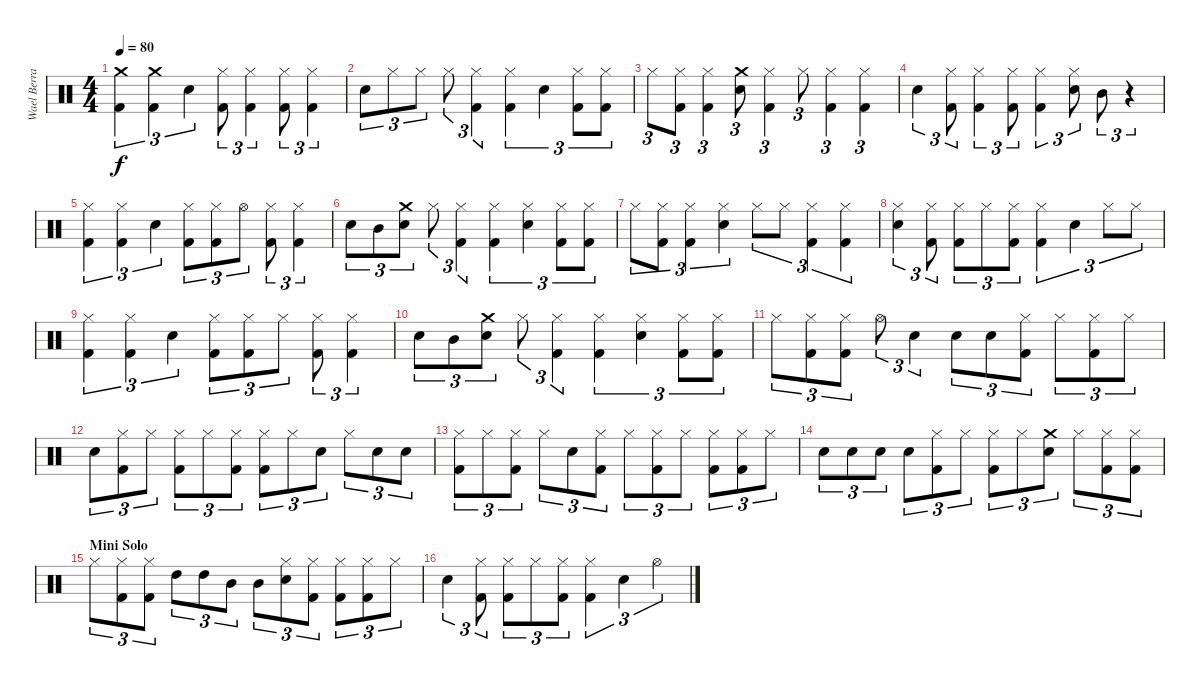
\track ("Wael Berrais" "Wael Berra") {instrument percussion}
\staff {score}
\articulation defaults
\ts (4 4)
\tempo 80
\clef neutral
\ks c
("Kick (hit) 2" "Crash medium (hit)").4{tu (3 2) dy f} ("Crash medium (hit)" "Kick (hit) 2").4{tu (3 2)} "Electric Snare (hit)".4{tu (3 2)} ("Kick (hit) 2" "Hi-Hat (closed)").8{tu (3 2)} ("Hi-Hat (closed)" "Kick (hit) 2").4{tu (3 2)} ("Hi-Hat (closed)" "Kick (hit) 2").8{tu (3 2)} ("Hi-Hat (closed)" "Kick (hit) 2").4{tu (3 2)} |
"Electric Snare (hit)".8{tu (3 2)} "Hi-Hat (closed)".8{tu (3 2)} "Hi-Hat (closed)".8{tu (3 2)} "Hi-Hat (closed)".8{tu (3 2)} ("Hi-Hat (closed)" "Kick (hit) 2").4{tu (3 2)} ("Hi-Hat (closed)" "Kick (hit) 2").4{tu (3 2)} "Electric Snare (hit)".4{tu (3 2)} ("Kick (hit) 2" "Hi-Hat (closed)").8{tu (3 2)} ("Kick (hit) 2" "Hi-Hat (closed)").8{tu (3 2)} |
"Hi-Hat (closed)".8{tu (3 2)} ("Hi-Hat (closed)" "Kick (hit) 2").8{tu (3 2)} ("Hi-Hat (closed)" "Kick (hit) 2").4{tu (3 2)} ("Electric Snare (hit)" "Crash medium (hit)").8{tu (3 2)} ("Hi-Hat (closed)" "Kick (hit) 2").4{tu (3 2)} "Hi-Hat (closed)".8{tu (3 2)} ("Hi-Hat (closed)" "Kick (hit) 2").4{tu (3 2)} ("Hi-Hat (closed)" "Kick (hit) 2").4{tu (3 2)} |
"Electric Snare (hit)".4{tu (3 2)} ("Kick (hit) 2" "Hi-Hat (closed)").8{tu (3 2)} ("Kick (hit) 2" "Hi-Hat (closed)").4{tu (3 2)} ("Kick (hit) 2" "Hi-Hat (closed)").8{tu (3 2)} ("Kick (hit) 2" "Hi-Hat (closed)").4{tu (3 2)} ("Electric Snare (hit)" "Hi-Hat (closed)").8{tu (3 2)} "Mid Tom (hit)".8{tu (3 2)} r.4{tu (3 2)} |
("Hi-Hat (closed)" "Kick (hit) 2").4{tu (3 2)} ("Hi-Hat (closed)" "Kick (hit) 2").4{tu (3 2)} "Electric Snare (hit)".4{tu (3 2)} ("Kick (hit) 2" "Hi-Hat (closed)").8{tu (3 2)} ("Kick (hit) 2" "Hi-Hat (closed)").8{tu (3 2)} "Hi-Hat (open)".8{tu (3 2)} ("Kick (hit) 2" "Hi-Hat (closed)").8{tu (3 2)} ("Kick (hit) 2" "Hi-Hat (closed)").4{tu (3 2)} |
"Electric Snare (hit)".8{tu (3 2)} "Mid Tom (hit)".8{tu (3 2)} ("Electric Snare (hit)" "Crash medium (hit)").8{tu (3 2)} "Hi-Hat (closed)".8{tu (3 2)} ("Hi-Hat (closed)" "Kick (hit) 2").4{tu (3 2)} ("Hi-Hat (closed)" "Kick (hit) 2").4{tu (3 2)} ("Electric Snare (hit)" "Hi-Hat (closed)").4{tu (3 2)} ("Hi-Hat (closed)" "Kick (hit) 2").8{tu (3 2)} ("Hi-Hat (closed)" "Kick (hit) 2").8{tu (3 2)} |
"Hi-Hat (closed)".8{tu (3 2)} ("Kick (hit) 2" "Hi-Hat (closed)").8{tu (3 2)} ("Kick (hit) 2" "Hi-Hat (closed)").4{tu (3 2)} ("Electric Snare (hit)" "Hi-Hat (closed)").4{tu (3 2)} "Hi-Hat (closed)".8{tu (3 2)} "Hi-Hat (closed)".8{tu (3 2)} ("Kick (hit) 2" "Hi-Hat (closed)").4{tu (3 2)} ("Kick (hit) 2" "Hi-Hat (closed)").4{tu (3 2)} |
("Hi-Hat (closed)" "Electric Snare (hit)").4{tu (3 2)} ("Kick (hit) 2" "Hi-Hat (closed)").8{tu (3 2)} ("Kick (hit) 2" "Hi-Hat (closed)").8{tu (3 2)} "Hi-Hat (closed)".8{tu (3 2)} ("Hi-Hat (closed)" "Kick (hit) 2").8{tu (3 2)} ("Hi-Hat (closed)" "Kick (hit) 2").4{tu (3 2)} "Electric Snare (hit)".4{tu (3 2)} "Hi-Hat (closed)".8{tu (3 2)} "Hi-Hat (closed)".8{tu (3 2)} |
("Hi-Hat (closed)" "Kick (hit) 2").4{tu (3 2)} ("Hi-Hat (closed)" "Kick (hit) 2").4{tu (3 2)} "Electric Snare (hit)".4{tu (3 2)} ("Kick (hit) 2" "Hi-Hat (closed)").8{tu (3 2)} ("Kick (hit) 2" "Hi-Hat (closed)").8{tu (3 2)} "Hi-Hat (closed)".8{tu (3 2)} ("Kick (hit) 2" "Hi-Hat (closed)").8{tu (3 2)} ("Kick (hit) 2" "Hi-Hat (closed)").4{tu (3 2)} |
"Electric Snare (hit)".8{tu (3 2)} "Mid Tom (hit)".8{tu (3 2)} ("Electric Snare (hit)" "Crash medium (hit)").8{tu (3 2)} "Hi-Hat (closed)".8{tu (3 2)} ("Hi-Hat (closed)" "Kick (hit) 2").4{tu (3 2)} ("Hi-Hat (closed)" "Kick (hit) 2").4{tu (3 2)} ("Electric Snare (hit)" "Hi-Hat (closed)").4{tu (3 2)} ("Hi-Hat (closed)" "Kick (hit) 2").8{tu (3 2)} ("Hi-Hat (closed)" "Kick (hit) 2").8{tu (3 2)} |
"Hi-Hat (closed)".8{tu (3 2)} ("Kick (hit) 2" "Hi-Hat (closed)").8{tu (3 2)} ("Kick (hit) 2" "Hi-Hat (closed)").8{tu (3 2)} "Hi-Hat (open)".8{tu (3 2)} "Electric Snare (hit)".4{tu (3 2)} "Electric Snare (hit)".8{tu (3 2)} "Electric Snare (hit)".8{tu (3 2)} ("Hi-Hat (closed)" "Kick (hit) 2").8{tu (3 2)} "Hi-Hat (closed)".8{tu (3 2)} ("Hi-Hat (closed)" "Kick (hit) 2").8{tu (3 2)} "Hi-Hat (closed)".8{tu (3 2)} |
"Electric Snare (hit)".8{tu (3 2)} ("Hi-Hat (closed)" "Kick (hit) 2").8{tu (3 2)} "Hi-Hat (closed)".8{tu (3 2)} ("Hi-Hat (closed)" "Kick (hit) 2").8{tu (3 2)} "Hi-Hat (closed)".8{tu (3 2)} ("Hi-Hat (closed)" "Kick (hit) 2").8{tu (3 2)} ("Hi-Hat (closed)" "Kick (hit) 2").8{tu (3 2)} "Hi-Hat (closed)".8{tu (3 2)} "Electric Snare (hit)".8{tu (3 2)} "Hi-Hat (closed)".8{tu (3 2)} "Electric Snare (hit)".8{tu (3 2)} "Electric Snare (hit)".8{tu (3 2)} |
("Hi-Hat (closed)" "Kick (hit) 2").8{tu (3 2)} "Hi-Hat (closed)".8{tu (3 2)} ("Hi-Hat (closed)" "Kick (hit) 2").8{tu (3 2)} "Hi-Hat (closed)".8{tu (3 2)} "Electric Snare (hit)".8{tu (3 2)} ("Hi-Hat (closed)" "Kick (hit) 2").8{tu (3 2)} "Hi-Hat (closed)".8{tu (3 2)} ("Kick (hit) 2" "Hi-Hat (closed)").8{tu (3 2)} "Hi-Hat (closed)".8{tu (3 2)} ("Hi-Hat (closed)" "Kick (hit) 2").8{tu (3 2)} ("Hi-Hat (closed)" "Kick (hit) 2").8{tu (3 2)} "Hi-Hat (closed)".8{tu (3 2)} |
"Electric Snare (hit)".8{tu (3 2)} "Electric Snare (hit)".8{tu (3 2)} "Electric Snare (hit)".8{tu (3 2)} "Electric Snare (hit)".8{tu (3 2)} ("Hi-Hat (closed)" "Kick (hit) 2").8{tu (3 2)} "Hi-Hat (closed)".8{tu (3 2)} ("Hi-Hat (closed)" "Kick (hit) 2").8{tu (3 2)} "Hi-Hat (closed)".8{tu (3 2)} ("Crash medium (hit)" "Electric Snare (hit)").8{tu (3 2)} "Hi-Hat (closed)".8{tu (3 2)} ("Hi-Hat (closed)" "Kick (hit) 2").8{tu (3 2)} ("Hi-Hat (closed)" "Kick (hit) 2").8{tu (3 2)} |
\section ("" "Mini Solo")
"Hi-Hat (closed)".8{tu (3 2)} ("Hi-Hat (closed)" "Kick (hit) 2").8{tu (3 2)} ("Hi-Hat (closed)" "Kick (hit) 2").8{tu (3 2)} "High Tom (hit)".8{tu (3 2)} "High Tom (hit)".8{tu (3 2)} "Mid Tom (hit)".8{tu (3 2)} "Mid Tom (hit)".8{tu (3 2)} ("Hi-Hat (closed)" "Electric Snare (hit)").8{tu (3 2)} ("Hi-Hat (closed)" "Kick (hit) 2").8{tu (3 2)} ("Hi-Hat (closed)" "Kick (hit) 2").8{tu (3 2)} ("Hi-Hat (closed)" "Kick (hit) 2").8{tu (3 2)} "Hi-Hat (closed)".8{tu (3 2)} |
"Electric Snare (hit)".4{tu (3 2)} ("Kick (hit) 2" "Hi-Hat (closed)").8{tu (3 2)} ("Kick (hit) 2" "Hi-Hat (closed)").8{tu (3 2)} "Hi-Hat (closed)".8{tu (3 2)} ("Kick (hit) 2" "Hi-Hat (closed)").8{tu (3 2)} ("Kick (hit) 2" "Hi-Hat (closed)").4{tu (3 2)} "Electric Snare (hit)".4{tu (3 2)} "Hi-Hat (open)".4{tu (3 2)}
